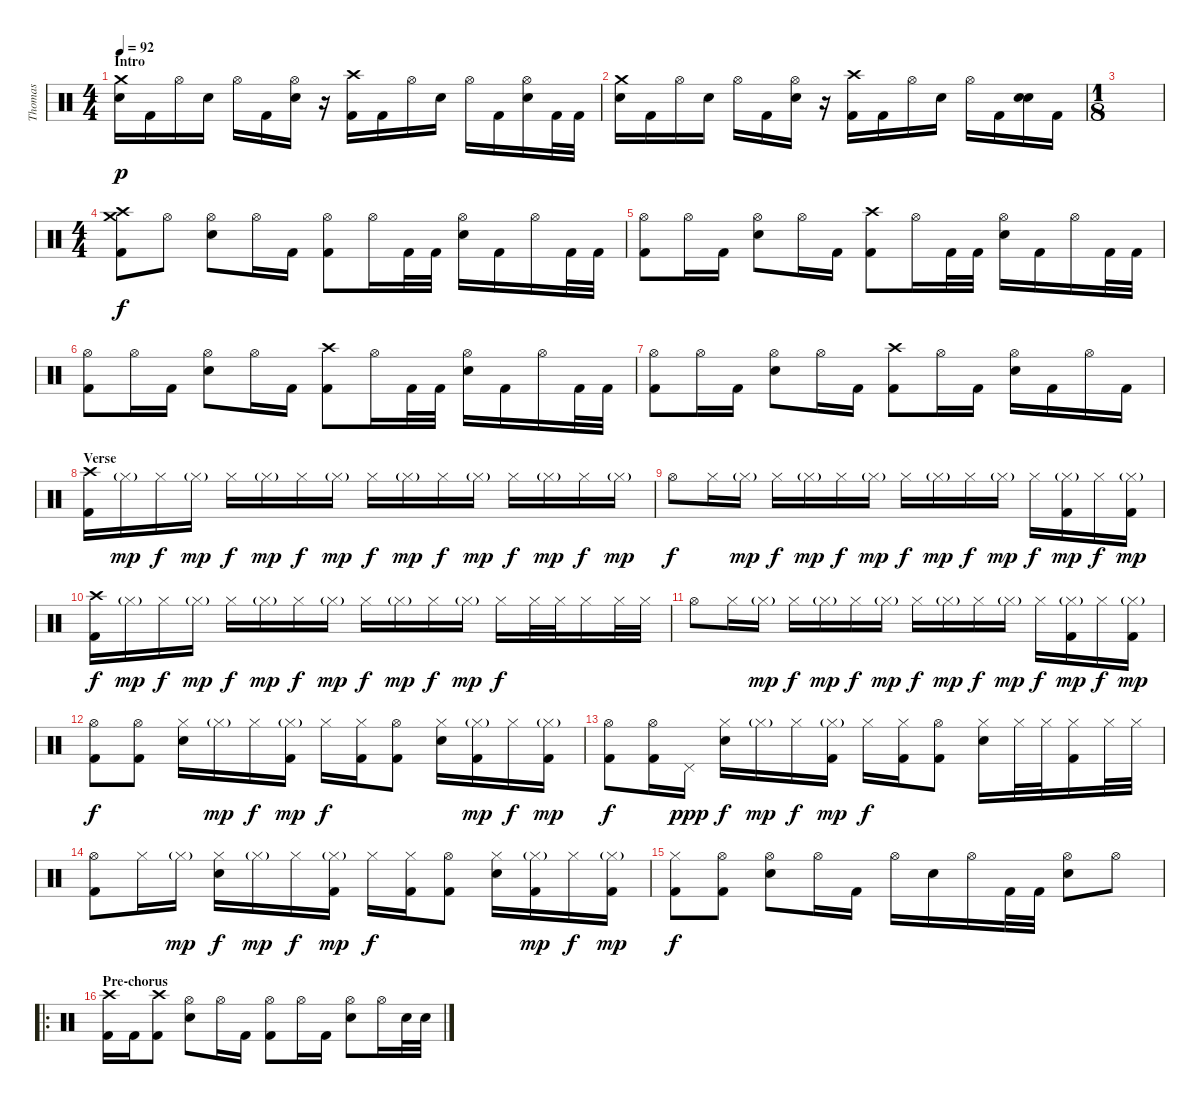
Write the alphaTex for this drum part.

\track ("Thomas" "Thomas") {instrument percussion}
\staff {score}
\articulation defaults
\ts (4 4)
\section ("" "Intro")
\tempo 92
\clef neutral
\ks c
("Crash medium (hit)" "Electric Snare (hit)").16{dy p} "Kick (hit) 2".16 "Hi-Hat (open)".16 "Electric Snare (hit)".16 "Hi-Hat (open)".16 "Kick (hit) 2".16 ("Hi-Hat (open)" "Electric Snare (hit)").16 r.16 ("Crash high (hit)" "Kick (hit) 2").16 "Kick (hit) 2".16 "Hi-Hat (open)".16 "Electric Snare (hit)".16 "Hi-Hat (open)".16 "Kick (hit) 2".16 ("Hi-Hat (open)" "Electric Snare (hit)").16 "Kick (hit) 2".32 "Kick (hit) 2".32 |
("Crash medium (hit)" "Electric Snare (hit)").16 "Kick (hit) 2".16 "Hi-Hat (open)".16 "Electric Snare (hit)".16 "Hi-Hat (open)".16 "Kick (hit) 2".16 ("Hi-Hat (open)" "Electric Snare (hit)").16 r.16 ("Crash high (hit)" "Kick (hit) 2").16 "Kick (hit) 2".16 "Hi-Hat (open)".16 "Electric Snare (hit)".16 "Hi-Hat (open)".16 "Kick (hit) 2".16 ("Electric Snare (hit)" "Electric Snare (hit)").16{bd 120} "Kick (hit) 2".16 |
\ts (1 8)
|
\ts (4 4)
("Crash high (hit)" "Crash medium (hit)" "Kick (hit) 2").8{dy f} "Hi-Hat (open)".8 ("Hi-Hat (open)" "Electric Snare (hit)").8 "Hi-Hat (open)".16 "Kick (hit) 2".16 ("Hi-Hat (open)" "Kick (hit) 2").8 "Hi-Hat (open)".16 "Kick (hit) 2".32 "Kick (hit) 2".32 ("Hi-Hat (open)" "Electric Snare (hit)").16 "Kick (hit) 2".16 "Hi-Hat (open)".16 "Kick (hit) 2".32 "Kick (hit) 2".32 |
("Hi-Hat (open)" "Kick (hit) 2").8 "Hi-Hat (open)".16 "Kick (hit) 2".16 ("Hi-Hat (open)" "Electric Snare (hit)").8 "Hi-Hat (open)".16 "Kick (hit) 2".16 ("Crash high (hit)" "Kick (hit) 2").8 "Hi-Hat (open)".16 "Kick (hit) 2".32 "Kick (hit) 2".32 ("Hi-Hat (open)" "Electric Snare (hit)").16 "Kick (hit) 2".16 "Hi-Hat (open)".16 "Kick (hit) 2".32 "Kick (hit) 2".32 |
("Hi-Hat (open)" "Kick (hit) 2").8 "Hi-Hat (open)".16 "Kick (hit) 2".16 ("Hi-Hat (open)" "Electric Snare (hit)").8 "Hi-Hat (open)".16 "Kick (hit) 2".16 ("Crash high (hit)" "Kick (hit) 2").8 "Hi-Hat (open)".16 "Kick (hit) 2".32 "Kick (hit) 2".32 ("Hi-Hat (open)" "Electric Snare (hit)").16 "Kick (hit) 2".16 "Hi-Hat (open)".16 "Kick (hit) 2".32 "Kick (hit) 2".32 |
("Hi-Hat (open)" "Kick (hit) 2").8 "Hi-Hat (open)".16 "Kick (hit) 2".16 ("Hi-Hat (open)" "Electric Snare (hit)").8 "Hi-Hat (open)".16 "Kick (hit) 2".16 ("Crash high (hit)" "Kick (hit) 2").8 "Hi-Hat (open)".16 "Kick (hit) 2".16 ("Hi-Hat (open)" "Electric Snare (hit)").16 "Kick (hit) 2".16 "Hi-Hat (open)".16 "Kick (hit) 2".16 |
\section ("" "Verse")
("Crash high (hit)" "Kick (hit) 2").16 "Hi-Hat (closed)"{g}.16{dy mp} "Hi-Hat (closed)".16{dy f} "Hi-Hat (closed)"{g}.16{dy mp} "Hi-Hat (closed)".16{dy f} "Hi-Hat (closed)"{g}.16{dy mp} "Hi-Hat (closed)".16{dy f} "Hi-Hat (closed)"{g}.16{dy mp} "Hi-Hat (closed)".16{dy f} "Hi-Hat (closed)"{g}.16{dy mp} "Hi-Hat (closed)".16{dy f} "Hi-Hat (closed)"{g}.16{dy mp} "Hi-Hat (closed)".16{dy f} "Hi-Hat (closed)"{g}.16{dy mp} "Hi-Hat (closed)".16{dy f} "Hi-Hat (closed)"{g}.16{dy mp} |
"Hi-Hat (open)".8{dy f} "Hi-Hat (closed)".16 "Hi-Hat (closed)"{g}.16{dy mp} "Hi-Hat (closed)".16{dy f} "Hi-Hat (closed)"{g}.16{dy mp} "Hi-Hat (closed)".16{dy f} "Hi-Hat (closed)"{g}.16{dy mp} "Hi-Hat (closed)".16{dy f} "Hi-Hat (closed)"{g}.16{dy mp} "Hi-Hat (closed)".16{dy f} "Hi-Hat (closed)"{g}.16{dy mp} "Hi-Hat (closed)".16{dy f} ("Hi-Hat (closed)"{g} "Kick (hit) 2").16{dy mp} "Hi-Hat (closed)".16{dy f} ("Hi-Hat (closed)"{g} "Kick (hit) 2").16{dy mp} |
("Crash high (hit)" "Kick (hit) 2").16{dy f} "Hi-Hat (closed)"{g}.16{dy mp} "Hi-Hat (closed)".16{dy f} "Hi-Hat (closed)"{g}.16{dy mp} "Hi-Hat (closed)".16{dy f} "Hi-Hat (closed)"{g}.16{dy mp} "Hi-Hat (closed)".16{dy f} "Hi-Hat (closed)"{g}.16{dy mp} "Hi-Hat (closed)".16{dy f} "Hi-Hat (closed)"{g}.16{dy mp} "Hi-Hat (closed)".16{dy f} "Hi-Hat (closed)"{g}.16{dy mp} "Hi-Hat (closed)".16{dy f} "Hi-Hat (closed)".32 "Hi-Hat (closed)".32 "Hi-Hat (closed)".16 "Hi-Hat (closed)".32 "Hi-Hat (closed)".32 |
"Hi-Hat (open)".8 "Hi-Hat (closed)".16 "Hi-Hat (closed)"{g}.16{dy mp} "Hi-Hat (closed)".16{dy f} "Hi-Hat (closed)"{g}.16{dy mp} "Hi-Hat (closed)".16{dy f} "Hi-Hat (closed)"{g}.16{dy mp} "Hi-Hat (closed)".16{dy f} "Hi-Hat (closed)"{g}.16{dy mp} "Hi-Hat (closed)".16{dy f} "Hi-Hat (closed)"{g}.16{dy mp} "Hi-Hat (closed)".16{dy f} ("Hi-Hat (closed)"{g} "Kick (hit) 2").16{dy mp} "Hi-Hat (closed)".16{dy f} ("Hi-Hat (closed)"{g} "Kick (hit) 2").16{dy mp} |
("Hi-Hat (open)" "Kick (hit) 2").8{dy f} ("Hi-Hat (open)" "Kick (hit) 2").8 ("Hi-Hat (closed)" "Electric Snare (hit)").16 "Hi-Hat (closed)"{g}.16{dy mp} "Hi-Hat (closed)".16{dy f} ("Hi-Hat (closed)"{g} "Kick (hit) 2").16{dy mp} "Hi-Hat (closed)".16{dy f} ("Hi-Hat (closed)" "Kick (hit) 2").16 ("Hi-Hat (open)" "Kick (hit) 2").8 ("Hi-Hat (closed)" "Electric Snare (hit)").16 ("Hi-Hat (closed)"{g} "Kick (hit) 2").16{dy mp} "Hi-Hat (closed)".16{dy f} ("Hi-Hat (closed)"{g} "Kick (hit) 2").16{dy mp} |
("Hi-Hat (open)" "Kick (hit) 2").8{dy f} ("Hi-Hat (open)" "Kick (hit) 2").16 "Pedal Hi-Hat (hit)".16{dy ppp} ("Hi-Hat (closed)" "Electric Snare (hit)").16{dy f} "Hi-Hat (closed)"{g}.16{dy mp} "Hi-Hat (closed)".16{dy f} ("Hi-Hat (closed)"{g} "Kick (hit) 2").16{dy mp} "Hi-Hat (closed)".16{dy f} ("Hi-Hat (closed)" "Kick (hit) 2").16 ("Hi-Hat (open)" "Kick (hit) 2").8 ("Hi-Hat (closed)" "Electric Snare (hit)").16 "Hi-Hat (closed)".32 "Hi-Hat (closed)".32 ("Hi-Hat (closed)" "Kick (hit) 2").16 "Hi-Hat (closed)".32 "Hi-Hat (closed)".32 |
("Hi-Hat (open)" "Kick (hit) 2").8 "Hi-Hat (closed)".16 "Hi-Hat (closed)"{g}.16{dy mp} ("Hi-Hat (closed)" "Electric Snare (hit)").16{dy f} "Hi-Hat (closed)"{g}.16{dy mp} "Hi-Hat (closed)".16{dy f} ("Hi-Hat (closed)"{g} "Kick (hit) 2").16{dy mp} "Hi-Hat (closed)".16{dy f} ("Hi-Hat (closed)" "Kick (hit) 2").16 ("Hi-Hat (open)" "Kick (hit) 2").8 ("Hi-Hat (closed)" "Electric Snare (hit)").16 ("Hi-Hat (closed)"{g} "Kick (hit) 2").16{dy mp} "Hi-Hat (closed)".16{dy f} ("Hi-Hat (closed)"{g} "Kick (hit) 2").16{dy mp} |
("Hi-Hat (closed)" "Kick (hit) 2").8{dy f} ("Hi-Hat (open)" "Kick (hit) 2").8 ("Hi-Hat (open)" "Electric Snare (hit)").8 "Hi-Hat (open)".16 "Kick (hit) 2".16 "Hi-Hat (open)".16 "Electric Snare (hit)".16 "Hi-Hat (open)".16 "Kick (hit) 2".32 "Kick (hit) 2".32 ("Hi-Hat (open)" "Electric Snare (hit)").8 "Hi-Hat (open)".8 |
\ro
\section ("" "Pre-chorus")
("Crash high (hit)" "Kick (hit) 2").16 "Kick (hit) 2".16 ("Crash high (hit)" "Kick (hit) 2").8 ("Hi-Hat (open)" "Electric Snare (hit)").8 "Hi-Hat (open)".16 "Kick (hit) 2".16 ("Hi-Hat (open)" "Kick (hit) 2").8 "Hi-Hat (open)".16 "Kick (hit) 2".16 ("Hi-Hat (open)" "Electric Snare (hit)").8 "Hi-Hat (open)".16 "Electric Snare (hit)".32 "Electric Snare (hit)".32
